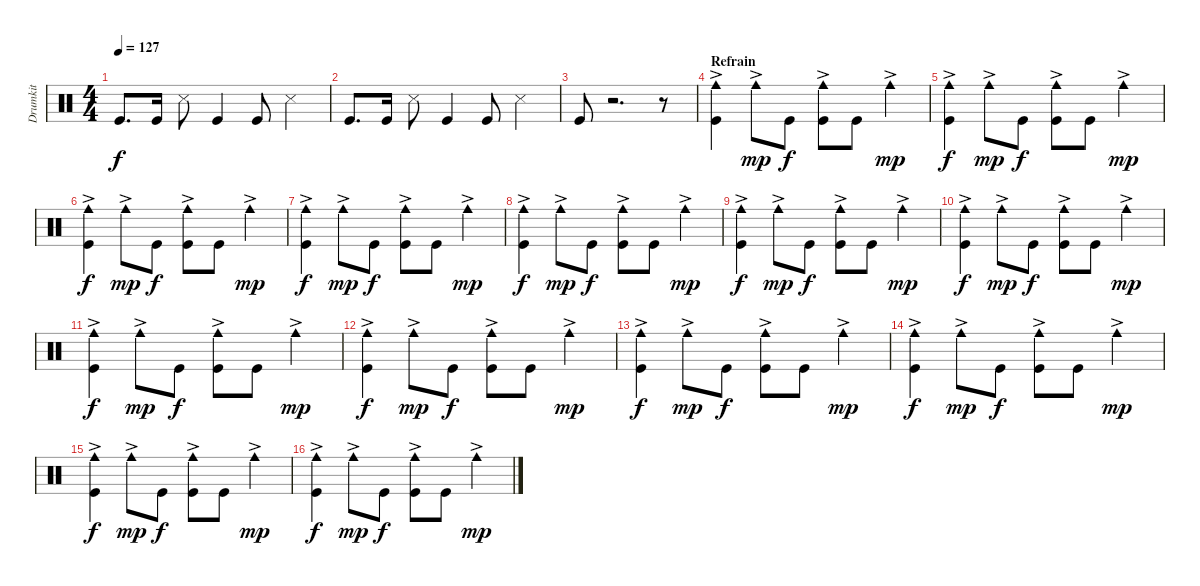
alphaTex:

\track ("Drumkit" "Drumkit") {instrument percussion}
\staff {score}
\articulation defaults
\ts (4 4)
\tempo 127
\clef neutral
\ks c "Kick (hit)".8{d dy f} "Kick (hit)".16 "Snare (side stick) 3".8 "Kick (hit)".4 "Kick (hit)".8 "Snare (side stick) 3".4
|
"Kick (hit)".8{d} "Kick (hit)".16 "Snare (side stick) 3".8 "Kick (hit)".4 "Kick (hit)".8 "Snare (side stick) 3".4 |
"Kick (hit)".8 r.2{d} r.8 |
\section ("" "Refrain")
("Kick (hit)" "Cowbell medium (hit)"{ac}).4 "Cowbell medium (hit)"{ac}.8{dy mp} "Kick (hit)".8{dy f} ("Kick (hit)" "Cowbell medium (hit)"{ac}).8 "Kick (hit)".8 "Cowbell medium (hit)"{ac}.4{dy mp} |
("Kick (hit)" "Cowbell medium (hit)"{ac}).4{dy f} "Cowbell medium (hit)"{ac}.8{dy mp} "Kick (hit)".8{dy f} ("Kick (hit)" "Cowbell medium (hit)"{ac}).8 "Kick (hit)".8 "Cowbell medium (hit)"{ac}.4{dy mp} |
("Kick (hit)" "Cowbell medium (hit)"{ac}).4{dy f} "Cowbell medium (hit)"{ac}.8{dy mp} "Kick (hit)".8{dy f} ("Kick (hit)" "Cowbell medium (hit)"{ac}).8 "Kick (hit)".8 "Cowbell medium (hit)"{ac}.4{dy mp} |
("Kick (hit)" "Cowbell medium (hit)"{ac}).4{dy f} "Cowbell medium (hit)"{ac}.8{dy mp} "Kick (hit)".8{dy f} ("Kick (hit)" "Cowbell medium (hit)"{ac}).8 "Kick (hit)".8 "Cowbell medium (hit)"{ac}.4{dy mp} |
("Kick (hit)" "Cowbell medium (hit)"{ac}).4{dy f} "Cowbell medium (hit)"{ac}.8{dy mp} "Kick (hit)".8{dy f} ("Kick (hit)" "Cowbell medium (hit)"{ac}).8 "Kick (hit)".8 "Cowbell medium (hit)"{ac}.4{dy mp} |
("Kick (hit)" "Cowbell medium (hit)"{ac}).4{dy f} "Cowbell medium (hit)"{ac}.8{dy mp} "Kick (hit)".8{dy f} ("Kick (hit)" "Cowbell medium (hit)"{ac}).8 "Kick (hit)".8 "Cowbell medium (hit)"{ac}.4{dy mp} |
("Kick (hit)" "Cowbell medium (hit)"{ac}).4{dy f} "Cowbell medium (hit)"{ac}.8{dy mp} "Kick (hit)".8{dy f} ("Kick (hit)" "Cowbell medium (hit)"{ac}).8 "Kick (hit)".8 "Cowbell medium (hit)"{ac}.4{dy mp} |
("Kick (hit)" "Cowbell medium (hit)"{ac}).4{dy f} "Cowbell medium (hit)"{ac}.8{dy mp} "Kick (hit)".8{dy f} ("Kick (hit)" "Cowbell medium (hit)"{ac}).8 "Kick (hit)".8 "Cowbell medium (hit)"{ac}.4{dy mp} |
("Kick (hit)" "Cowbell medium (hit)"{ac}).4{dy f} "Cowbell medium (hit)"{ac}.8{dy mp} "Kick (hit)".8{dy f} ("Kick (hit)" "Cowbell medium (hit)"{ac}).8 "Kick (hit)".8 "Cowbell medium (hit)"{ac}.4{dy mp} |
("Kick (hit)" "Cowbell medium (hit)"{ac}).4{dy f} "Cowbell medium (hit)"{ac}.8{dy mp} "Kick (hit)".8{dy f} ("Kick (hit)" "Cowbell medium (hit)"{ac}).8 "Kick (hit)".8 "Cowbell medium (hit)"{ac}.4{dy mp} |
("Kick (hit)" "Cowbell medium (hit)"{ac}).4{dy f} "Cowbell medium (hit)"{ac}.8{dy mp} "Kick (hit)".8{dy f} ("Kick (hit)" "Cowbell medium (hit)"{ac}).8 "Kick (hit)".8 "Cowbell medium (hit)"{ac}.4{dy mp} |
("Kick (hit)" "Cowbell medium (hit)"{ac}).4{dy f} "Cowbell medium (hit)"{ac}.8{dy mp} "Kick (hit)".8{dy f} ("Kick (hit)" "Cowbell medium (hit)"{ac}).8 "Kick (hit)".8 "Cowbell medium (hit)"{ac}.4{dy mp} |
("Kick (hit)" "Cowbell medium (hit)"{ac}).4{dy f} "Cowbell medium (hit)"{ac}.8{dy mp} "Kick (hit)".8{dy f} ("Kick (hit)" "Cowbell medium (hit)"{ac}).8 "Kick (hit)".8 "Cowbell medium (hit)"{ac}.4{dy mp}
